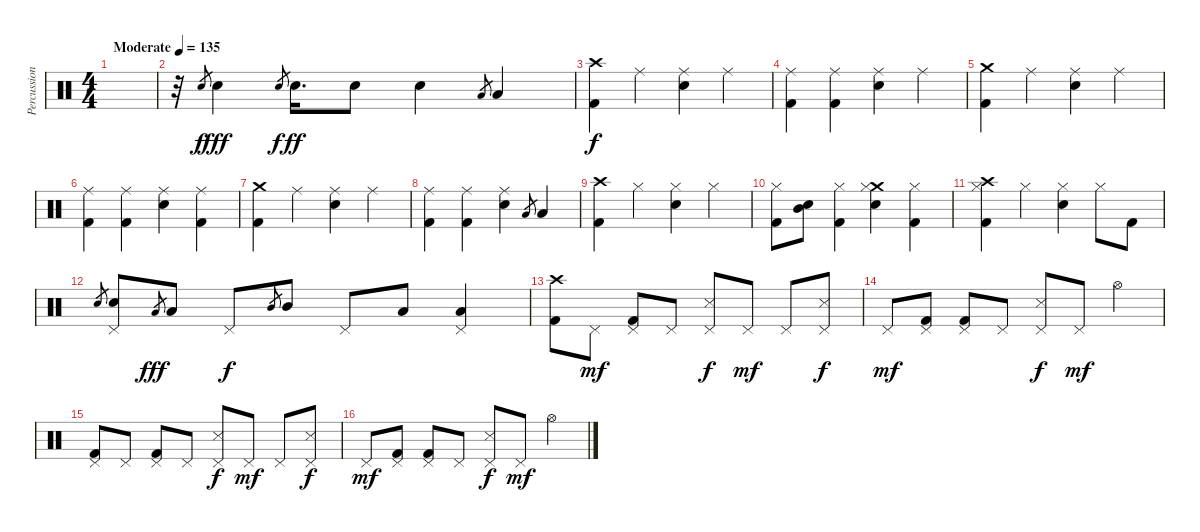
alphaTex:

\track ("Percussion" "Percussion") {instrument percussion}
\staff {score}
\articulation defaults
\ts (4 4)
\tempo (135 "Moderate")
\clef neutral
\ks c
|
r.32 "Electric Snare (hit)".8{gr} "Electric Snare (hit)".4{dy fff} "Electric Snare (hit)".8{gr dy f} "Electric Snare (hit)".16{d dy ff} "Electric Snare (hit)".8 "Electric Snare (hit)".4 "Low Tom (hit)".8{gr} "Low Tom (hit)".4 |
("Crash high (hit)" "Kick (hit) 2").4{dy f} "Ride (middle)".4 ("Ride (middle)" "Electric Snare (hit)").4 "Ride (middle)".4 |
("Ride (middle)" "Kick (hit) 2").4 ("Ride (middle)" "Kick (hit) 2").4 ("Ride (middle)" "Electric Snare (hit)").4 "Ride (middle)".4 |
("Crash medium (hit)" "Kick (hit) 2").4 "Ride (middle)".4 ("Ride (middle)" "Electric Snare (hit)").4 "Ride (middle)".4 |
("Ride (middle)" "Kick (hit) 2").4 ("Ride (middle)" "Kick (hit) 2").4 ("Ride (middle)" "Electric Snare (hit)").4 ("Ride (middle)" "Kick (hit) 2").4 |
("Crash medium (hit)" "Kick (hit) 2").4 "Ride (middle)".4 ("Ride (middle)" "Electric Snare (hit)").4 "Ride (middle)".4 |
("Ride (middle)" "Kick (hit) 2").4 ("Ride (middle)" "Kick (hit) 2").4 ("Ride (middle)" "Electric Snare (hit)").4 "Low Tom (hit)".8{gr} "Low Tom (hit)".4 |
("Crash high (hit)" "Kick (hit) 2").4 "Hi-Hat (closed)".4 ("Hi-Hat (closed)" "Electric Snare (hit)").4 "Hi-Hat (closed)".4 |
("Hi-Hat (closed)" "Kick (hit) 2").8 ("Mid Tom (hit)" "Electric Snare (hit)").8 ("Hi-Hat (closed)" "Kick (hit) 2").4 ("Crash medium (hit)" "Hi-Hat (closed)" "Electric Snare (hit)").4 ("Hi-Hat (closed)" "Kick (hit) 2").4 |
("Crash high (hit)" "Hi-Hat (closed)" "Kick (hit) 2").4 "Hi-Hat (closed)".4 ("Hi-Hat (closed)" "Electric Snare (hit)").4 "Hi-Hat (closed)".8 "Kick (hit) 2".8 |
"Electric Snare (hit)".8{gr} ("Pedal Hi-Hat (hit)" "Electric Snare (hit)").8 "Low Tom (hit)".8{gr dy fff} "Low Tom (hit)".8 "Pedal Hi-Hat (hit)".8{dy f} "Mid Tom (hit)".8{gr} "Mid Tom (hit)".8 "Pedal Hi-Hat (hit)".8 "Low Floor Tom (hit)".8 ("Low Floor Tom (hit)" "Pedal Hi-Hat (hit)").4 |
("Crash high (hit)" "Kick (hit) 2").8 "Pedal Hi-Hat (hit)".8{dy mf} ("Pedal Hi-Hat (hit)" "Kick (hit) 2").8 "Pedal Hi-Hat (hit)".8 ("Pedal Hi-Hat (hit)" "Snare (side stick) 3").8{dy f} "Pedal Hi-Hat (hit)".8{dy mf} "Pedal Hi-Hat (hit)".8 ("Pedal Hi-Hat (hit)" "Snare (side stick) 3").8{dy f} |
"Pedal Hi-Hat (hit)".8{dy mf} ("Pedal Hi-Hat (hit)" "Kick (hit) 2").8 ("Pedal Hi-Hat (hit)" "Kick (hit) 2").8 "Pedal Hi-Hat (hit)".8 ("Pedal Hi-Hat (hit)" "Snare (side stick) 3").8{dy f} "Pedal Hi-Hat (hit)".8{dy mf} "Hi-Hat (open)".4 |
("Pedal Hi-Hat (hit)" "Kick (hit) 2").8 "Pedal Hi-Hat (hit)".8 ("Pedal Hi-Hat (hit)" "Kick (hit) 2").8 "Pedal Hi-Hat (hit)".8 ("Pedal Hi-Hat (hit)" "Snare (side stick) 3").8{dy f} "Pedal Hi-Hat (hit)".8{dy mf} "Pedal Hi-Hat (hit)".8 ("Pedal Hi-Hat (hit)" "Snare (side stick) 3").8{dy f} |
"Pedal Hi-Hat (hit)".8{dy mf} ("Pedal Hi-Hat (hit)" "Kick (hit) 2").8 ("Pedal Hi-Hat (hit)" "Kick (hit) 2").8 "Pedal Hi-Hat (hit)".8 ("Pedal Hi-Hat (hit)" "Snare (side stick) 3").8{dy f} "Pedal Hi-Hat (hit)".8{dy mf} "Hi-Hat (open)".4
